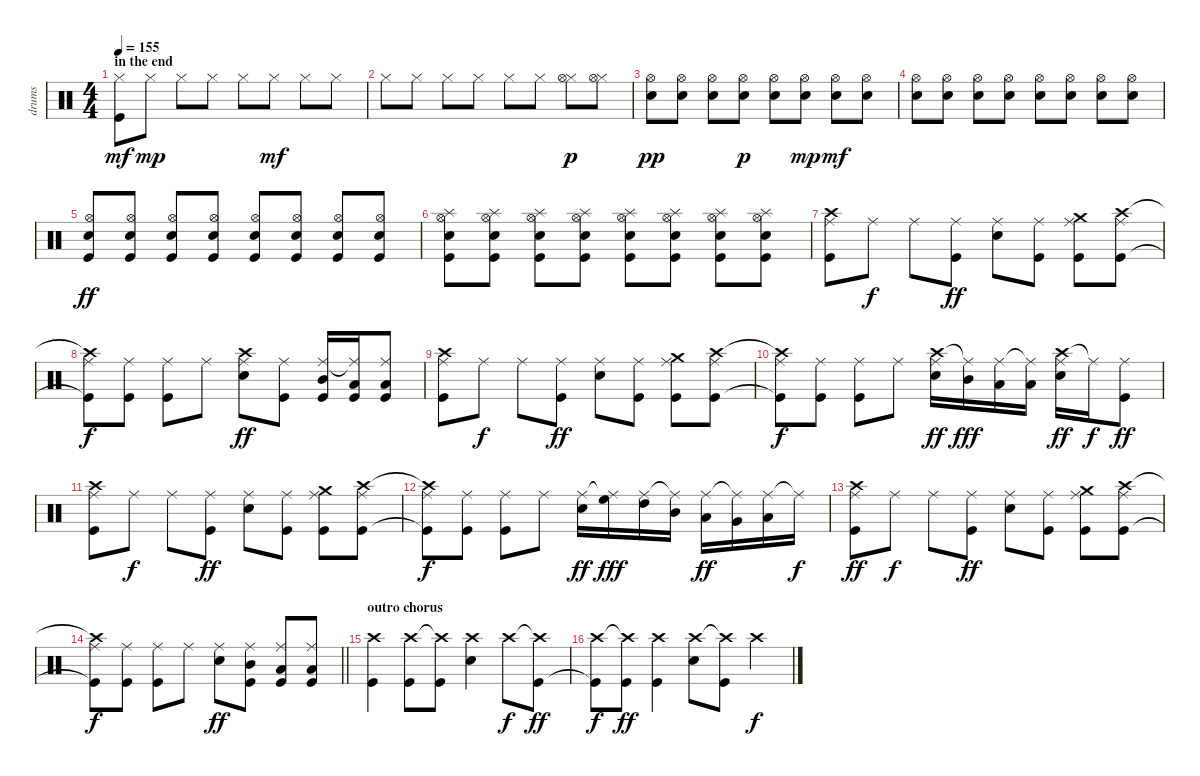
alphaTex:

\track ("drums" "drums") {instrument percussion}
\staff {score}
\articulation defaults
\ts (4 4)
\section ("" "in the end")
\tempo 155
\clef neutral
\ks c
("Hi-Hat (closed)" "Kick (hit)").8{dy mf} "Hi-Hat (closed)".8{dy mp} "Hi-Hat (closed)".8 "Hi-Hat (closed)".8 "Hi-Hat (closed)".8 "Hi-Hat (closed)".8{dy mf} "Hi-Hat (closed)".8 "Hi-Hat (closed)".8 |
"Hi-Hat (closed)".8 "Hi-Hat (closed)".8 "Hi-Hat (closed)".8 "Hi-Hat (closed)".8 "Hi-Hat (closed)".8 "Hi-Hat (closed)".8 ("Hi-Hat (closed)" "Hi-Hat (open)").8{dy p} ("Hi-Hat (closed)" "Hi-Hat (open)").8 |
("Hi-Hat (open)" "Electric Snare (hit)").8{dy pp} ("Hi-Hat (open)" "Electric Snare (hit)").8 ("Hi-Hat (open)" "Electric Snare (hit)").8 ("Hi-Hat (open)" "Electric Snare (hit)").8{dy p} ("Hi-Hat (open)" "Electric Snare (hit)").8 ("Hi-Hat (open)" "Electric Snare (hit)").8{dy mp} ("Hi-Hat (open)" "Electric Snare (hit)").8{dy mf} ("Hi-Hat (open)" "Electric Snare (hit)").8 |
("Hi-Hat (open)" "Electric Snare (hit)").8 ("Hi-Hat (open)" "Electric Snare (hit)").8 ("Hi-Hat (open)" "Electric Snare (hit)").8 ("Hi-Hat (open)" "Electric Snare (hit)").8 ("Hi-Hat (open)" "Electric Snare (hit)").8 ("Hi-Hat (open)" "Electric Snare (hit)").8 ("Hi-Hat (open)" "Electric Snare (hit)").8 ("Hi-Hat (open)" "Electric Snare (hit)").8 |
("Hi-Hat (open)" "Electric Snare (hit)" "Kick (hit)").8{dy ff} ("Hi-Hat (open)" "Electric Snare (hit)" "Kick (hit)").8 ("Hi-Hat (open)" "Electric Snare (hit)" "Kick (hit)").8 ("Hi-Hat (open)" "Electric Snare (hit)" "Kick (hit)").8 ("Hi-Hat (open)" "Electric Snare (hit)" "Kick (hit)").8 ("Hi-Hat (open)" "Electric Snare (hit)" "Kick (hit)").8 ("Hi-Hat (open)" "Electric Snare (hit)" "Kick (hit)").8 ("Hi-Hat (open)" "Electric Snare (hit)" "Kick (hit)").8 |
("Splash (hit)" "Hi-Hat (open)" "Electric Snare (hit)" "Kick (hit)").8 ("Splash (hit)" "Hi-Hat (open)" "Electric Snare (hit)" "Kick (hit)").8 ("Splash (hit)" "Hi-Hat (open)" "Electric Snare (hit)" "Kick (hit)").8 ("Splash (hit)" "Hi-Hat (open)" "Electric Snare (hit)" "Kick (hit)").8 ("Splash (hit)" "Hi-Hat (open)" "Electric Snare (hit)" "Kick (hit)").8 ("Splash (hit)" "Hi-Hat (open)" "Electric Snare (hit)" "Kick (hit)").8 ("Splash (hit)" "Hi-Hat (open)" "Electric Snare (hit)" "Kick (hit)").8 ("Splash (hit)" "Hi-Hat (open)" "Electric Snare (hit)" "Kick (hit)").8 |
("Crash high (hit)" "Ride (middle)" "Kick (hit)").8 "Ride (middle)".8{dy f} "Ride (middle)".8 ("Ride (middle)" "Kick (hit)").8{dy ff} ("Ride (middle)" "Electric Snare (hit)").8 ("Ride (middle)" "Kick (hit)").8 ("Crash medium (hit)" "Ride (middle)" "Kick (hit)").8 ("Crash high (hit)" "Ride (middle)" "Kick (hit)").8 |
("Crash high (hit)"{t} "Ride (middle)" "Kick (hit)"{t}).8{dy f} ("Ride (middle)" "Kick (hit)").8 ("Ride (middle)" "Kick (hit)").8 "Ride (middle)".8 ("Crash high (hit)" "Ride (middle)" "Electric Snare (hit)").8{dy ff} ("Ride (middle)" "Kick (hit)").8 ("Ride (middle)" "Mid Tom (hit)" "Kick (hit)").16 ("Ride (middle)"{t} "Low Tom (hit)" "Kick (hit)").16 ("Ride (middle)" "Low Floor Tom (hit)" "Kick (hit)").8 |
("Crash high (hit)" "Ride (middle)" "Kick (hit)").8 "Ride (middle)".8{dy f} "Ride (middle)".8 ("Ride (middle)" "Kick (hit)").8{dy ff} ("Ride (middle)" "Electric Snare (hit)").8 ("Ride (middle)" "Kick (hit)").8 ("Crash medium (hit)" "Ride (middle)" "Kick (hit)").8 ("Crash high (hit)" "Ride (middle)" "Kick (hit)").8 |
("Crash high (hit)"{t} "Ride (middle)" "Kick (hit)"{t}).8{dy f} ("Ride (middle)" "Kick (hit)").8 ("Ride (middle)" "Kick (hit)").8 "Ride (middle)".8 ("Crash high (hit)" "Ride (middle)" "Electric Snare (hit)").16{dy ff} ("Ride (middle)"{t} "Mid Tom (hit)").16{dy fff} ("Ride (middle)" "Low Tom (hit)").16 ("Ride (middle)"{t} "Low Floor Tom (hit)").16 ("Crash high (hit)" "Ride (middle)" "Electric Snare (hit)").16{dy ff} "Ride (middle)"{t}.16{dy f} ("Ride (middle)" "Kick (hit)").8{dy ff} |
("Crash high (hit)" "Ride (middle)" "Kick (hit)").8 "Ride (middle)".8{dy f} "Ride (middle)".8 ("Ride (middle)" "Kick (hit)").8{dy ff} ("Ride (middle)" "Electric Snare (hit)").8 ("Ride (middle)" "Kick (hit)").8 ("Crash medium (hit)" "Ride (middle)" "Kick (hit)").8 ("Crash high (hit)" "Ride (middle)" "Kick (hit)").8 |
("Crash high (hit)"{t} "Ride (middle)" "Kick (hit)"{t}).8{dy f} ("Ride (middle)" "Kick (hit)").8 ("Ride (middle)" "Kick (hit)").8 "Ride (middle)".8 ("Ride (middle)" "Electric Snare (hit)").16{dy ff} ("Ride (middle)"{t} "High Floor Tom (hit)").16{dy fff} ("Ride (middle)" "High Tom (hit)").16 ("Ride (middle)"{t} "Mid Tom (hit)").16 ("Ride (middle)" "Low Tom (hit)").16{dy ff} ("Ride (middle)"{t} "Very Low Tom (hit)").16 ("Ride (middle)" "Low Floor Tom (hit)").16 "Ride (middle)"{t}.16{dy f} |
("Crash high (hit)" "Ride (middle)" "Kick (hit)").8{dy ff} "Ride (middle)".8{dy f} "Ride (middle)".8 ("Ride (middle)" "Kick (hit)").8{dy ff} ("Ride (middle)" "Electric Snare (hit)").8 ("Ride (middle)" "Kick (hit)").8 ("Crash medium (hit)" "Ride (middle)" "Kick (hit)").8 ("Crash high (hit)" "Ride (middle)" "Kick (hit)").8 |
\barLineRight lightlight
("Crash high (hit)"{t} "Ride (middle)" "Kick (hit)"{t}).8{dy f} ("Ride (middle)" "Kick (hit)").8 ("Ride (middle)" "Kick (hit)").8 "Ride (middle)".8 ("Ride (middle)" "Electric Snare (hit)").8{dy ff} ("Ride (middle)" "Mid Tom (hit)" "Kick (hit)").8 ("Ride (middle)" "Low Tom (hit)" "Kick (hit)").8 ("Ride (middle)" "Low Floor Tom (hit)" "Kick (hit)").8 |
\section ("" "outro chorus")
("Crash high (hit)" "Kick (hit)").4 ("Crash high (hit)" "Kick (hit)").8 ("Crash high (hit)"{t} "Kick (hit)").8 ("Crash high (hit)" "Electric Snare (hit)").4 "Crash high (hit)".8{dy f} ("Crash high (hit)"{t} "Kick (hit)").8{dy ff} |
("Crash high (hit)" "Kick (hit)"{t}).8{dy f} ("Crash high (hit)"{t} "Kick (hit)").8{dy ff} ("Crash high (hit)" "Kick (hit)").4 ("Crash high (hit)" "Electric Snare (hit)").8 ("Crash high (hit)"{t} "Kick (hit)").8 "Crash high (hit)".4{dy f}
